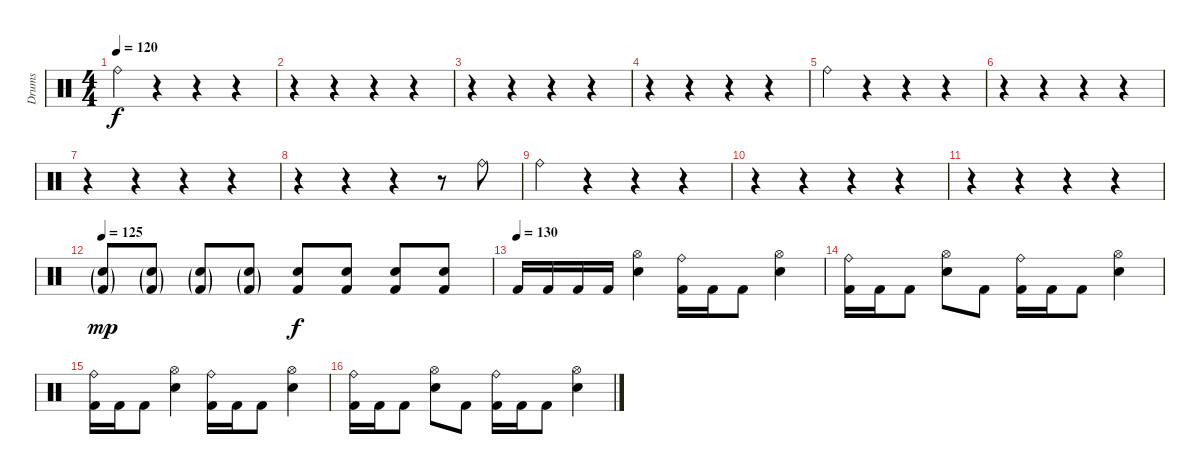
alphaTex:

\track ("Drums" "Drums") {instrument percussion}
\staff {score}
\articulation defaults
\ts (4 4)
\tempo 120
\clef neutral
\ks c "Ride (bell)".4{dy f}
r.4 r.4 r.4 |
r.4 r.4 r.4 r.4 |
r.4 r.4 r.4 r.4 |
r.4 r.4 r.4 r.4 |
"Ride (bell)".4 r.4 r.4 r.4 |
r.4 r.4 r.4 r.4 |
r.4 r.4 r.4 r.4 |
r.4 r.4 r.4 r.8 "Ride (bell)".8 |
"Ride (bell)".4 r.4 r.4 r.4 |
r.4 r.4 r.4 r.4 |
r.4 r.4 r.4 r.4 |
\tempo 125
("Electric Snare (hit)"{g} "Kick (hit) 2"{g}).8{dy mp} ("Electric Snare (hit)"{g} "Kick (hit) 2"{g}).8 ("Electric Snare (hit)"{g} "Kick (hit) 2"{g}).8 ("Electric Snare (hit)"{g} "Kick (hit) 2"{g}).8 ("Electric Snare (hit)" "Kick (hit) 2").8{dy f} ("Electric Snare (hit)" "Kick (hit) 2").8 ("Electric Snare (hit)" "Kick (hit) 2").8 ("Electric Snare (hit)" "Kick (hit) 2").8 |
\tempo (130)
"Kick (hit) 2".16 "Kick (hit) 2".16 "Kick (hit) 2".16 "Kick (hit) 2".16 ("Hi-Hat (open)" "Electric Snare (hit)").4 ("Ride (bell)" "Kick (hit) 2").16 "Kick (hit) 2".16 "Kick (hit) 2".8 ("Hi-Hat (open)" "Electric Snare (hit)").4 |
("Ride (bell)" "Kick (hit) 2").16 "Kick (hit) 2".16 "Kick (hit) 2".8 ("Hi-Hat (open)" "Electric Snare (hit)").8 "Kick (hit) 2".8 ("Ride (bell)" "Kick (hit) 2").16 "Kick (hit) 2".16 "Kick (hit) 2".8 ("Hi-Hat (open)" "Electric Snare (hit)").4 |
("Ride (bell)" "Kick (hit) 2").16 "Kick (hit) 2".16 "Kick (hit) 2".8 ("Hi-Hat (open)" "Electric Snare (hit)").4 ("Ride (bell)" "Kick (hit) 2").16 "Kick (hit) 2".16 "Kick (hit) 2".8 ("Hi-Hat (open)" "Electric Snare (hit)").4 |
("Ride (bell)" "Kick (hit) 2").16 "Kick (hit) 2".16 "Kick (hit) 2".8 ("Hi-Hat (open)" "Electric Snare (hit)").8 "Kick (hit) 2".8 ("Ride (bell)" "Kick (hit) 2").16 "Kick (hit) 2".16 "Kick (hit) 2".8 ("Hi-Hat (open)" "Electric Snare (hit)").4
